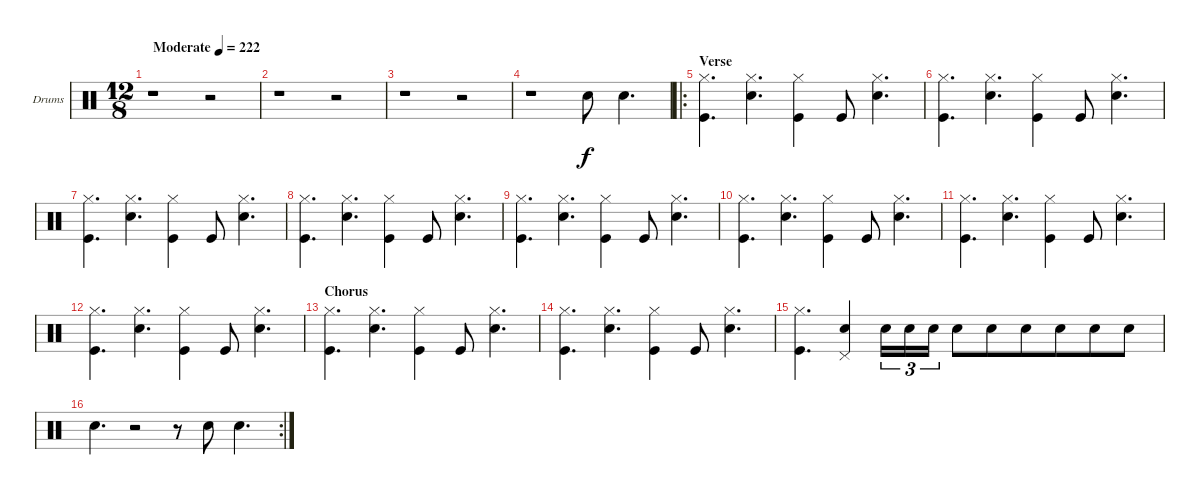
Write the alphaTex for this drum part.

\bracketExtendMode nobrackets
\firstSystemTrackNameOrientation horizontal
\otherSystemsTrackNameOrientation horizontal
\track ("Drumkit" "Drums") {instrument percussion}
\staff {score}
\articulation defaults
\ts (12 8)
\beaming (8 2 2 2 6)
\tempo (222 "Moderate")
\clef neutral
\ks c
r.1{dy f} r.2 |
r.1 r.2 |
r.1 r.2 |
r.1 "Snare (hit) 2".8 "Snare (hit) 2".4{d} |
\ro
\section ("" "Verse")
("Hi-Hat (closed)" "Kick (hit)").4{d} ("Hi-Hat (closed)" "Snare (hit) 2").4{d} ("Hi-Hat (closed)" "Kick (hit)").4 "Kick (hit)".8 ("Hi-Hat (closed)" "Snare (hit) 2").4{d} |
("Hi-Hat (closed)" "Kick (hit)").4{d} ("Hi-Hat (closed)" "Snare (hit) 2").4{d} ("Hi-Hat (closed)" "Kick (hit)").4 "Kick (hit)".8 ("Hi-Hat (closed)" "Snare (hit) 2").4{d} |
("Hi-Hat (closed)" "Kick (hit)").4{d} ("Hi-Hat (closed)" "Snare (hit) 2").4{d} ("Hi-Hat (closed)" "Kick (hit)").4 "Kick (hit)".8 ("Hi-Hat (closed)" "Snare (hit) 2").4{d} |
("Hi-Hat (closed)" "Kick (hit)").4{d} ("Hi-Hat (closed)" "Snare (hit) 2").4{d} ("Hi-Hat (closed)" "Kick (hit)").4 "Kick (hit)".8 ("Hi-Hat (closed)" "Snare (hit) 2").4{d} |
("Hi-Hat (closed)" "Kick (hit)").4{d} ("Hi-Hat (closed)" "Snare (hit) 2").4{d} ("Hi-Hat (closed)" "Kick (hit)").4 "Kick (hit)".8 ("Hi-Hat (closed)" "Snare (hit) 2").4{d} |
("Hi-Hat (closed)" "Kick (hit)").4{d} ("Hi-Hat (closed)" "Snare (hit) 2").4{d} ("Hi-Hat (closed)" "Kick (hit)").4 "Kick (hit)".8 ("Hi-Hat (closed)" "Snare (hit) 2").4{d} |
("Hi-Hat (closed)" "Kick (hit)").4{d} ("Hi-Hat (closed)" "Snare (hit) 2").4{d} ("Hi-Hat (closed)" "Kick (hit)").4 "Kick (hit)".8 ("Hi-Hat (closed)" "Snare (hit) 2").4{d} |
("Hi-Hat (closed)" "Kick (hit)").4{d} ("Hi-Hat (closed)" "Snare (hit) 2").4{d} ("Hi-Hat (closed)" "Kick (hit)").4 "Kick (hit)".8 ("Hi-Hat (closed)" "Snare (hit) 2").4{d} |
\section ("" "Chorus")
("Hi-Hat (closed)" "Kick (hit)").4{d} ("Hi-Hat (closed)" "Snare (hit) 2").4{d} ("Hi-Hat (closed)" "Kick (hit)").4 "Kick (hit)".8 ("Hi-Hat (closed)" "Snare (hit) 2").4{d} |
("Hi-Hat (closed)" "Kick (hit)").4{d} ("Hi-Hat (closed)" "Snare (hit) 2").4{d} ("Hi-Hat (closed)" "Kick (hit)").4 "Kick (hit)".8 ("Hi-Hat (closed)" "Snare (hit) 2").4{d} |
("Hi-Hat (closed)" "Kick (hit)").4{d} ("Pedal Hi-Hat (hit)" "Snare (hit) 2").4 "Snare (hit) 2".16{tu (3 2)} "Snare (hit) 2".16{tu (3 2)} "Snare (hit) 2".16{tu (3 2)} "Snare (hit) 2".8 "Snare (hit) 2".8 "Snare (hit) 2".8 "Snare (hit) 2".8 "Snare (hit) 2".8 "Snare (hit) 2".8 |
\rc 2 "Snare (hit) 2".4{d}
r.2 r.8 "Snare (hit) 2".8 "Snare (hit) 2".4{d}
